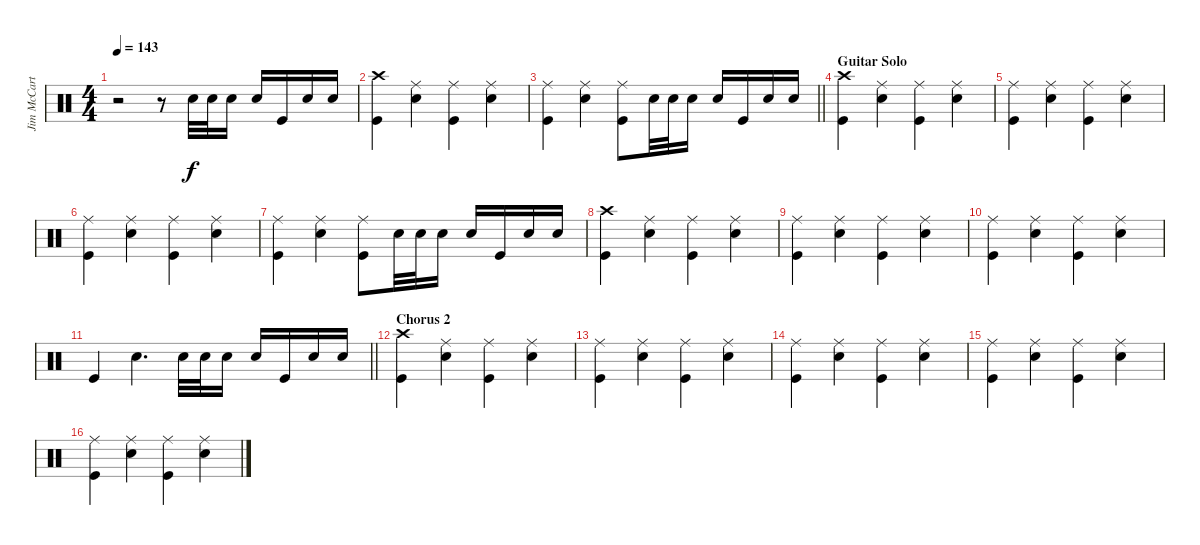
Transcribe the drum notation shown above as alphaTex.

\track ("Jim McCarty" "Jim McCart") {instrument percussion}
\staff {score}
\articulation defaults
\ts (4 4)
\tempo 143
\clef neutral
\ks c
r.2{dy f} r.8 "Electric Snare (hit)".32 "Electric Snare (hit)".32 "Electric Snare (hit)".16 "Electric Snare (hit)".16 "Kick (hit)".16 "Electric Snare (hit)".16 "Electric Snare (hit)".16 |
("Crash high (hit)" "Kick (hit)").4 ("Ride (middle)" "Electric Snare (hit)").4 ("Ride (middle)" "Kick (hit)").4 ("Ride (middle)" "Electric Snare (hit)").4 |
\barLineRight lightlight
("Ride (middle)" "Kick (hit)").4 ("Ride (middle)" "Electric Snare (hit)").4 ("Ride (middle)" "Kick (hit)").8 "Electric Snare (hit)".32 "Electric Snare (hit)".32 "Electric Snare (hit)".16 "Electric Snare (hit)".16 "Kick (hit)".16 "Electric Snare (hit)".16 "Electric Snare (hit)".16 |
\section ("" "Guitar Solo")
("Crash high (hit)" "Kick (hit)").4 ("Ride (middle)" "Electric Snare (hit)").4 ("Ride (middle)" "Kick (hit)").4 ("Ride (middle)" "Electric Snare (hit)").4 |
("Ride (middle)" "Kick (hit)").4 ("Ride (middle)" "Electric Snare (hit)").4 ("Ride (middle)" "Kick (hit)").4 ("Ride (middle)" "Electric Snare (hit)").4 |
("Ride (middle)" "Kick (hit)").4 ("Ride (middle)" "Electric Snare (hit)").4 ("Ride (middle)" "Kick (hit)").4 ("Ride (middle)" "Electric Snare (hit)").4 |
("Ride (middle)" "Kick (hit)").4 ("Ride (middle)" "Electric Snare (hit)").4 ("Ride (middle)" "Kick (hit)").8 "Electric Snare (hit)".32 "Electric Snare (hit)".32 "Electric Snare (hit)".16 "Electric Snare (hit)".16 "Kick (hit)".16 "Electric Snare (hit)".16 "Electric Snare (hit)".16 |
("Crash high (hit)" "Kick (hit)").4 ("Ride (middle)" "Electric Snare (hit)").4 ("Ride (middle)" "Kick (hit)").4 ("Ride (middle)" "Electric Snare (hit)").4 |
("Ride (middle)" "Kick (hit)").4 ("Ride (middle)" "Electric Snare (hit)").4 ("Ride (middle)" "Kick (hit)").4 ("Ride (middle)" "Electric Snare (hit)").4 |
("Ride (middle)" "Kick (hit)").4 ("Ride (middle)" "Electric Snare (hit)").4 ("Ride (middle)" "Kick (hit)").4 ("Ride (middle)" "Electric Snare (hit)").4 |
\barLineRight lightlight "Kick (hit)".4 "Electric Snare (hit)".4{d} "Electric Snare (hit)".32 "Electric Snare (hit)".32 "Electric Snare (hit)".16 "Electric Snare (hit)".16 "Kick (hit)".16 "Electric Snare (hit)".16 "Electric Snare (hit)".16
|
\section ("" "Chorus 2")
("Crash high (hit)" "Kick (hit)").4 ("Ride (middle)" "Electric Snare (hit)").4 ("Ride (middle)" "Kick (hit)").4 ("Ride (middle)" "Electric Snare (hit)").4 |
("Ride (middle)" "Kick (hit)").4 ("Ride (middle)" "Electric Snare (hit)").4 ("Ride (middle)" "Kick (hit)").4 ("Ride (middle)" "Electric Snare (hit)").4 |
("Ride (middle)" "Kick (hit)").4 ("Ride (middle)" "Electric Snare (hit)").4 ("Ride (middle)" "Kick (hit)").4 ("Ride (middle)" "Electric Snare (hit)").4 |
("Ride (middle)" "Kick (hit)").4 ("Ride (middle)" "Electric Snare (hit)").4 ("Ride (middle)" "Kick (hit)").4 ("Ride (middle)" "Electric Snare (hit)").4 |
("Ride (middle)" "Kick (hit)").4 ("Ride (middle)" "Electric Snare (hit)").4 ("Ride (middle)" "Kick (hit)").4 ("Ride (middle)" "Electric Snare (hit)").4
